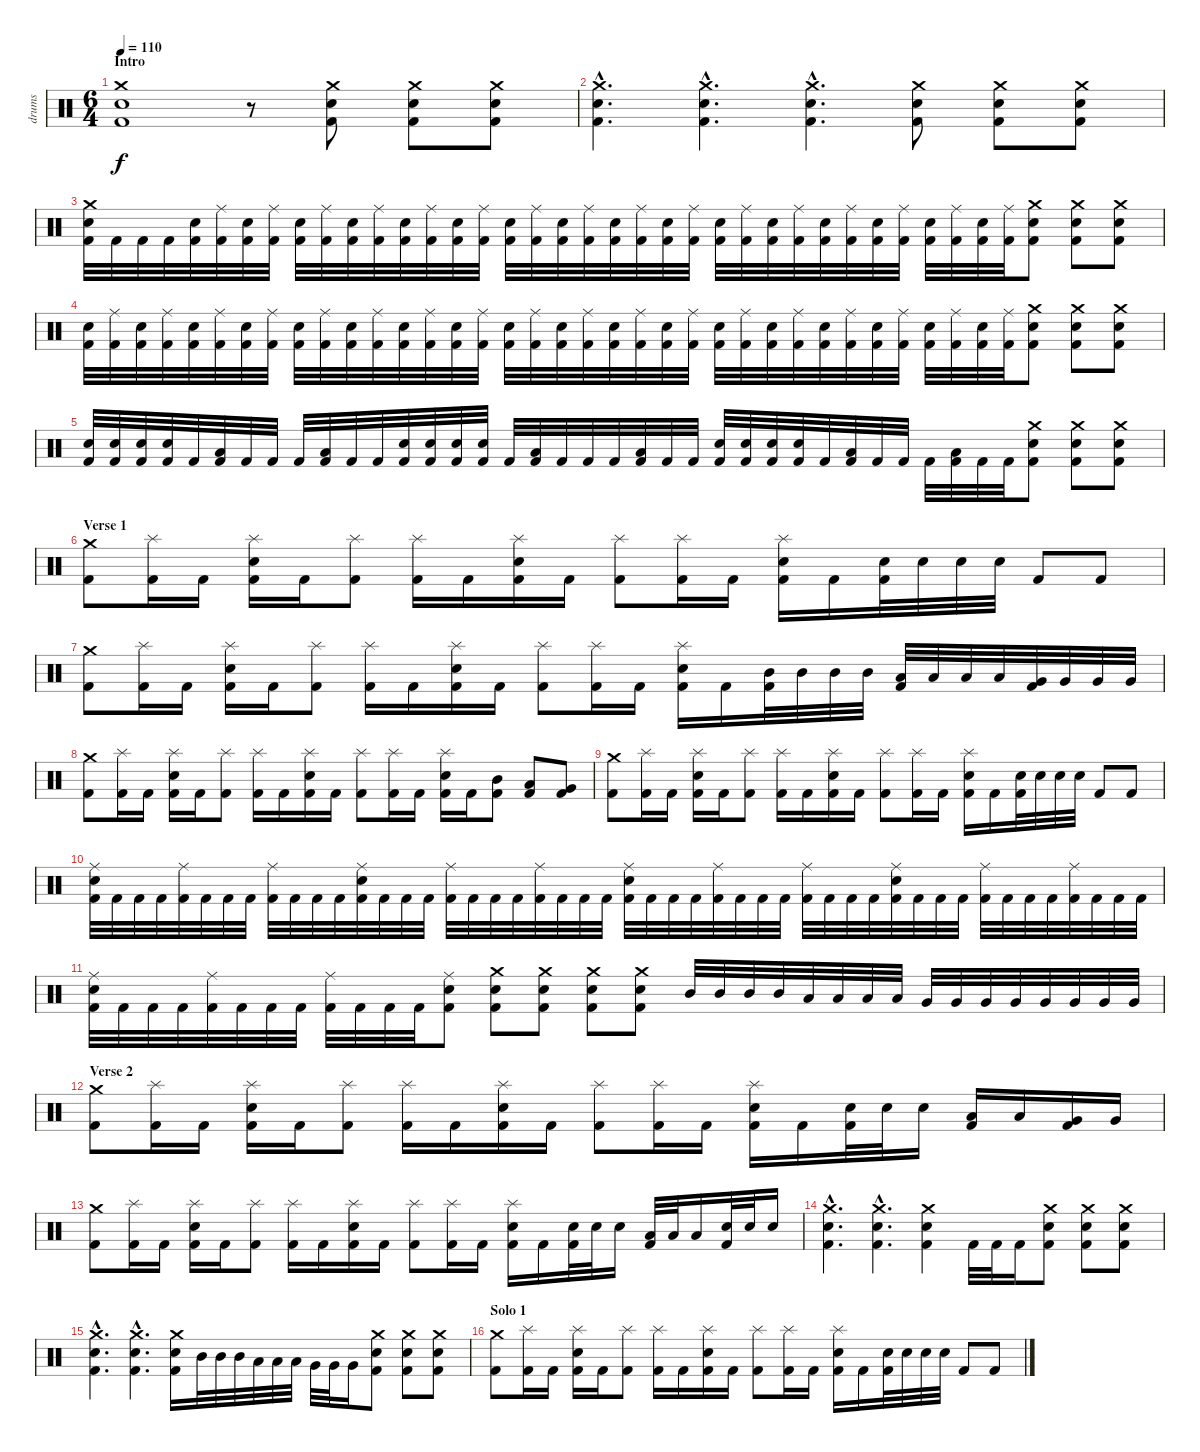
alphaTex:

\track ("drums" "drums") {instrument percussion}
\staff {score}
\articulation defaults
\ts (6 4)
\section ("" "Intro")
\tempo 110
\clef neutral
\ks c
("Crash medium (hit)" "Electric Snare (hit)" "Kick (hit) 2").1{dy f} r.8 ("Crash medium (hit)" "Electric Snare (hit)" "Kick (hit) 2").8 ("Crash medium (hit)" "Electric Snare (hit)" "Kick (hit) 2").8 ("Crash medium (hit)" "Electric Snare (hit)" "Kick (hit) 2").8 |
("Crash medium (hit)"{hac} "Electric Snare (hit)"{hac} "Kick (hit) 2"{hac}).4{d} ("Crash medium (hit)"{hac} "Electric Snare (hit)"{hac} "Kick (hit) 2"{hac}).4{d} ("Crash medium (hit)"{hac} "Electric Snare (hit)"{hac} "Kick (hit) 2"{hac}).4{d} ("Crash medium (hit)" "Electric Snare (hit)" "Kick (hit) 2").8 ("Crash medium (hit)" "Electric Snare (hit)" "Kick (hit) 2").8 ("Crash medium (hit)" "Electric Snare (hit)" "Kick (hit) 2").8 |
("Crash medium (hit)" "Electric Snare (hit)" "Kick (hit) 2").32 "Kick (hit) 2".32 "Kick (hit) 2".32 "Kick (hit) 2".32 ("Electric Snare (hit)" "Kick (hit) 2").32 ("Ride (middle)" "Kick (hit) 2").32 ("Electric Snare (hit)" "Kick (hit) 2").32 ("Ride (middle)" "Kick (hit) 2").32 ("Electric Snare (hit)" "Kick (hit) 2").32 ("Ride (middle)" "Kick (hit) 2").32 ("Electric Snare (hit)" "Kick (hit) 2").32 ("Ride (middle)" "Kick (hit) 2").32 ("Electric Snare (hit)" "Kick (hit) 2").32 ("Ride (middle)" "Kick (hit) 2").32 ("Electric Snare (hit)" "Kick (hit) 2").32 ("Ride (middle)" "Kick (hit) 2").32 ("Electric Snare (hit)" "Kick (hit) 2").32 ("Ride (middle)" "Kick (hit) 2").32 ("Electric Snare (hit)" "Kick (hit) 2").32 ("Ride (middle)" "Kick (hit) 2").32 ("Electric Snare (hit)" "Kick (hit) 2").32 ("Ride (middle)" "Kick (hit) 2").32 ("Electric Snare (hit)" "Kick (hit) 2").32 ("Ride (middle)" "Kick (hit) 2").32 ("Electric Snare (hit)" "Kick (hit) 2").32 ("Ride (middle)" "Kick (hit) 2").32 ("Electric Snare (hit)" "Kick (hit) 2").32 ("Ride (middle)" "Kick (hit) 2").32 ("Electric Snare (hit)" "Kick (hit) 2").32 ("Ride (middle)" "Kick (hit) 2").32 ("Electric Snare (hit)" "Kick (hit) 2").32 ("Ride (middle)" "Kick (hit) 2").32 ("Electric Snare (hit)" "Kick (hit) 2").32 ("Ride (middle)" "Kick (hit) 2").32 ("Electric Snare (hit)" "Kick (hit) 2").32 ("Ride (middle)" "Kick (hit) 2").32 ("Crash medium (hit)" "Electric Snare (hit)" "Kick (hit) 2").8 ("Crash medium (hit)" "Electric Snare (hit)" "Kick (hit) 2").8 ("Crash medium (hit)" "Electric Snare (hit)" "Kick (hit) 2").8 |
("Electric Snare (hit)" "Kick (hit) 2").32 ("Ride (middle)" "Kick (hit) 2").32 ("Electric Snare (hit)" "Kick (hit) 2").32 ("Ride (middle)" "Kick (hit) 2").32 ("Electric Snare (hit)" "Kick (hit) 2").32 ("Ride (middle)" "Kick (hit) 2").32 ("Electric Snare (hit)" "Kick (hit) 2").32 ("Ride (middle)" "Kick (hit) 2").32 ("Electric Snare (hit)" "Kick (hit) 2").32 ("Ride (middle)" "Kick (hit) 2").32 ("Electric Snare (hit)" "Kick (hit) 2").32 ("Ride (middle)" "Kick (hit) 2").32 ("Electric Snare (hit)" "Kick (hit) 2").32 ("Ride (middle)" "Kick (hit) 2").32 ("Electric Snare (hit)" "Kick (hit) 2").32 ("Ride (middle)" "Kick (hit) 2").32 ("Electric Snare (hit)" "Kick (hit) 2").32 ("Ride (middle)" "Kick (hit) 2").32 ("Electric Snare (hit)" "Kick (hit) 2").32 ("Ride (middle)" "Kick (hit) 2").32 ("Electric Snare (hit)" "Kick (hit) 2").32 ("Ride (middle)" "Kick (hit) 2").32 ("Electric Snare (hit)" "Kick (hit) 2").32 ("Ride (middle)" "Kick (hit) 2").32 ("Electric Snare (hit)" "Kick (hit) 2").32 ("Ride (middle)" "Kick (hit) 2").32 ("Electric Snare (hit)" "Kick (hit) 2").32 ("Ride (middle)" "Kick (hit) 2").32 ("Electric Snare (hit)" "Kick (hit) 2").32 ("Ride (middle)" "Kick (hit) 2").32 ("Electric Snare (hit)" "Kick (hit) 2").32 ("Ride (middle)" "Kick (hit) 2").32 ("Electric Snare (hit)" "Kick (hit) 2").32 ("Ride (middle)" "Kick (hit) 2").32 ("Electric Snare (hit)" "Kick (hit) 2").32 ("Ride (middle)" "Kick (hit) 2").32 ("Crash medium (hit)" "Electric Snare (hit)" "Kick (hit) 2").8 ("Crash medium (hit)" "Electric Snare (hit)" "Kick (hit) 2").8 ("Crash medium (hit)" "Electric Snare (hit)" "Kick (hit) 2").8 |
("Electric Snare (hit)" "Kick (hit) 2").32 ("Electric Snare (hit)" "Kick (hit) 2").32 ("Electric Snare (hit)" "Kick (hit) 2").32 ("Electric Snare (hit)" "Kick (hit) 2").32 "Kick (hit) 2".32 ("Low Tom (hit)" "Kick (hit) 2").32 "Kick (hit) 2".32 "Kick (hit) 2".32 "Kick (hit) 2".32 ("Low Tom (hit)" "Kick (hit) 2").32 "Kick (hit) 2".32 "Kick (hit) 2".32 ("Electric Snare (hit)" "Kick (hit) 2").32 ("Electric Snare (hit)" "Kick (hit) 2").32 ("Electric Snare (hit)" "Kick (hit) 2").32 ("Electric Snare (hit)" "Kick (hit) 2").32 "Kick (hit) 2".32 ("Low Tom (hit)" "Kick (hit) 2").32 "Kick (hit) 2".32 "Kick (hit) 2".32 "Kick (hit) 2".32 ("Low Tom (hit)" "Kick (hit) 2").32 "Kick (hit) 2".32 "Kick (hit) 2".32 ("Electric Snare (hit)" "Kick (hit) 2").32 ("Electric Snare (hit)" "Kick (hit) 2").32 ("Electric Snare (hit)" "Kick (hit) 2").32 ("Electric Snare (hit)" "Kick (hit) 2").32 "Kick (hit) 2".32 ("Low Tom (hit)" "Kick (hit) 2").32 "Kick (hit) 2".32 "Kick (hit) 2".32 "Kick (hit) 2".32 ("Low Tom (hit)" "Kick (hit) 2").32 "Kick (hit) 2".32 "Kick (hit) 2".32 ("Crash medium (hit)" "Electric Snare (hit)" "Kick (hit) 2").8 ("Crash medium (hit)" "Electric Snare (hit)" "Kick (hit) 2").8 ("Crash medium (hit)" "Electric Snare (hit)" "Kick (hit) 2").8 |
\section ("" "Verse 1")
("Crash medium (hit)" "Kick (hit) 2").8 ("Splash (hit)" "Kick (hit) 2").16 "Kick (hit) 2".16 ("Splash (hit)" "Electric Snare (hit)" "Kick (hit) 2").16 "Kick (hit) 2".16 ("Splash (hit)" "Kick (hit) 2").8 ("Splash (hit)" "Kick (hit) 2").16 "Kick (hit) 2".16 ("Splash (hit)" "Electric Snare (hit)" "Kick (hit) 2").16 "Kick (hit) 2".16 ("Splash (hit)" "Kick (hit) 2").8 ("Splash (hit)" "Kick (hit) 2").16 "Kick (hit) 2".16 ("Splash (hit)" "Electric Snare (hit)" "Kick (hit) 2").16 "Kick (hit) 2".16 ("Electric Snare (hit)" "Kick (hit) 2").32 "Electric Snare (hit)".32 "Electric Snare (hit)".32 "Electric Snare (hit)".32 "Kick (hit) 2".8 "Kick (hit) 2".8 |
("Crash medium (hit)" "Kick (hit) 2").8 ("Splash (hit)" "Kick (hit) 2").16 "Kick (hit) 2".16 ("Splash (hit)" "Electric Snare (hit)" "Kick (hit) 2").16 "Kick (hit) 2".16 ("Splash (hit)" "Kick (hit) 2").8 ("Splash (hit)" "Kick (hit) 2").16 "Kick (hit) 2".16 ("Splash (hit)" "Electric Snare (hit)" "Kick (hit) 2").16 "Kick (hit) 2".16 ("Splash (hit)" "Kick (hit) 2").8 ("Splash (hit)" "Kick (hit) 2").16 "Kick (hit) 2".16 ("Splash (hit)" "Electric Snare (hit)" "Kick (hit) 2").16 "Kick (hit) 2".16 ("Mid Tom (hit)" "Kick (hit) 2").32 "Mid Tom (hit)".32 "Mid Tom (hit)".32 "Mid Tom (hit)".32 ("Low Tom (hit)" "Kick (hit) 2").32 "Low Tom (hit)".32 "Low Tom (hit)".32 "Low Tom (hit)".32 ("Very Low Tom (hit)" "Kick (hit) 2").32 "Very Low Tom (hit)".32 "Very Low Tom (hit)".32 "Very Low Tom (hit)".32 |
("Crash medium (hit)" "Kick (hit) 2").8 ("Splash (hit)" "Kick (hit) 2").16 "Kick (hit) 2".16 ("Splash (hit)" "Electric Snare (hit)" "Kick (hit) 2").16 "Kick (hit) 2".16 ("Splash (hit)" "Kick (hit) 2").8 ("Splash (hit)" "Kick (hit) 2").16 "Kick (hit) 2".16 ("Splash (hit)" "Electric Snare (hit)" "Kick (hit) 2").16 "Kick (hit) 2".16 ("Splash (hit)" "Kick (hit) 2").8 ("Splash (hit)" "Kick (hit) 2").16 "Kick (hit) 2".16 ("Splash (hit)" "Electric Snare (hit)" "Kick (hit) 2").16 "Kick (hit) 2".16 ("Mid Tom (hit)" "Kick (hit) 2").8 ("Low Tom (hit)" "Kick (hit) 2").8 ("Very Low Tom (hit)" "Kick (hit) 2").8 |
("Crash medium (hit)" "Kick (hit) 2").8 ("Splash (hit)" "Kick (hit) 2").16 "Kick (hit) 2".16 ("Splash (hit)" "Electric Snare (hit)" "Kick (hit) 2").16 "Kick (hit) 2".16 ("Splash (hit)" "Kick (hit) 2").8 ("Splash (hit)" "Kick (hit) 2").16 "Kick (hit) 2".16 ("Splash (hit)" "Electric Snare (hit)" "Kick (hit) 2").16 "Kick (hit) 2".16 ("Splash (hit)" "Kick (hit) 2").8 ("Splash (hit)" "Kick (hit) 2").16 "Kick (hit) 2".16 ("Splash (hit)" "Electric Snare (hit)" "Kick (hit) 2").16 "Kick (hit) 2".16 ("Electric Snare (hit)" "Kick (hit) 2").32 "Electric Snare (hit)".32 "Electric Snare (hit)".32 "Electric Snare (hit)".32 "Kick (hit) 2".8 "Kick (hit) 2".8 |
("Ride (middle)" "Electric Snare (hit)" "Kick (hit) 2").32 "Kick (hit) 2".32 "Kick (hit) 2".32 "Kick (hit) 2".32 ("Ride (middle)" "Kick (hit) 2").32 "Kick (hit) 2".32 "Kick (hit) 2".32 "Kick (hit) 2".32 ("Ride (middle)" "Kick (hit) 2").32 "Kick (hit) 2".32 "Kick (hit) 2".32 "Kick (hit) 2".32 ("Ride (middle)" "Electric Snare (hit)" "Kick (hit) 2").32 "Kick (hit) 2".32 "Kick (hit) 2".32 "Kick (hit) 2".32 ("Ride (middle)" "Kick (hit) 2").32 "Kick (hit) 2".32 "Kick (hit) 2".32 "Kick (hit) 2".32 ("Ride (middle)" "Kick (hit) 2").32 "Kick (hit) 2".32 "Kick (hit) 2".32 "Kick (hit) 2".32 ("Ride (middle)" "Electric Snare (hit)" "Kick (hit) 2").32 "Kick (hit) 2".32 "Kick (hit) 2".32 "Kick (hit) 2".32 ("Ride (middle)" "Kick (hit) 2").32 "Kick (hit) 2".32 "Kick (hit) 2".32 "Kick (hit) 2".32 ("Ride (middle)" "Kick (hit) 2").32 "Kick (hit) 2".32 "Kick (hit) 2".32 "Kick (hit) 2".32 ("Ride (middle)" "Electric Snare (hit)" "Kick (hit) 2").32 "Kick (hit) 2".32 "Kick (hit) 2".32 "Kick (hit) 2".32 ("Ride (middle)" "Kick (hit) 2").32 "Kick (hit) 2".32 "Kick (hit) 2".32 "Kick (hit) 2".32 ("Ride (middle)" "Kick (hit) 2").32 "Kick (hit) 2".32 "Kick (hit) 2".32 "Kick (hit) 2".32 |
("Ride (middle)" "Electric Snare (hit)" "Kick (hit) 2").32 "Kick (hit) 2".32 "Kick (hit) 2".32 "Kick (hit) 2".32 ("Ride (middle)" "Kick (hit) 2").32 "Kick (hit) 2".32 "Kick (hit) 2".32 "Kick (hit) 2".32 ("Ride (middle)" "Kick (hit) 2").32 "Kick (hit) 2".32 "Kick (hit) 2".32 "Kick (hit) 2".32 ("Ride (middle)" "Electric Snare (hit)" "Kick (hit) 2").8 ("Crash medium (hit)" "Electric Snare (hit)" "Kick (hit) 2").8 ("Crash medium (hit)" "Electric Snare (hit)" "Kick (hit) 2").8 ("Crash medium (hit)" "Electric Snare (hit)" "Kick (hit) 2").8 ("Crash medium (hit)" "Electric Snare (hit)" "Kick (hit) 2").8 "Mid Tom (hit)".32 "Mid Tom (hit)".32 "Mid Tom (hit)".32 "Mid Tom (hit)".32 "Low Tom (hit)".32 "Low Tom (hit)".32 "Low Tom (hit)".32 "Low Tom (hit)".32 "Very Low Tom (hit)".32 "Very Low Tom (hit)".32 "Very Low Tom (hit)".32 "Very Low Tom (hit)".32 "Very Low Tom (hit)".32 "Very Low Tom (hit)".32 "Very Low Tom (hit)".32 "Very Low Tom (hit)".32 |
\section ("" "Verse 2")
("Crash medium (hit)" "Kick (hit) 2").8 ("Splash (hit)" "Kick (hit) 2").16 "Kick (hit) 2".16 ("Splash (hit)" "Electric Snare (hit)" "Kick (hit) 2").16 "Kick (hit) 2".16 ("Splash (hit)" "Kick (hit) 2").8 ("Splash (hit)" "Kick (hit) 2").16 "Kick (hit) 2".16 ("Splash (hit)" "Electric Snare (hit)" "Kick (hit) 2").16 "Kick (hit) 2".16 ("Splash (hit)" "Kick (hit) 2").8 ("Splash (hit)" "Kick (hit) 2").16 "Kick (hit) 2".16 ("Splash (hit)" "Electric Snare (hit)" "Kick (hit) 2").16 "Kick (hit) 2".16 ("Electric Snare (hit)" "Kick (hit) 2").32 "Electric Snare (hit)".32 "Electric Snare (hit)".16 ("Low Tom (hit)" "Kick (hit) 2").16 "Low Tom (hit)".16 ("Very Low Tom (hit)" "Kick (hit) 2").16 "Very Low Tom (hit)".16 |
("Crash medium (hit)" "Kick (hit) 2").8 ("Splash (hit)" "Kick (hit) 2").16 "Kick (hit) 2".16 ("Splash (hit)" "Electric Snare (hit)" "Kick (hit) 2").16 "Kick (hit) 2".16 ("Splash (hit)" "Kick (hit) 2").8 ("Splash (hit)" "Kick (hit) 2").16 "Kick (hit) 2".16 ("Splash (hit)" "Electric Snare (hit)" "Kick (hit) 2").16 "Kick (hit) 2".16 ("Splash (hit)" "Kick (hit) 2").8 ("Splash (hit)" "Kick (hit) 2").16 "Kick (hit) 2".16 ("Splash (hit)" "Electric Snare (hit)" "Kick (hit) 2").16 "Kick (hit) 2".16 ("Electric Snare (hit)" "Kick (hit) 2").32 "Electric Snare (hit)".32 "Electric Snare (hit)".16 ("Low Tom (hit)" "Kick (hit) 2").32 "Low Tom (hit)".32 "Low Tom (hit)".16 ("Electric Snare (hit)" "Kick (hit) 2").32 "Electric Snare (hit)".32 "Electric Snare (hit)".16 |
("Crash medium (hit)"{hac} "Electric Snare (hit)"{hac} "Kick (hit) 2"{hac}).4{d} ("Crash medium (hit)"{hac} "Electric Snare (hit)"{hac} "Kick (hit) 2"{hac}).4{d} ("Crash medium (hit)" "Electric Snare (hit)" "Kick (hit) 2").4 "Kick (hit) 2".32 "Kick (hit) 2".32 "Kick (hit) 2".16 ("Crash medium (hit)" "Electric Snare (hit)" "Kick (hit) 2").8 ("Crash medium (hit)" "Electric Snare (hit)" "Kick (hit) 2").8 ("Crash medium (hit)" "Electric Snare (hit)" "Kick (hit) 2").8 |
("Crash medium (hit)"{hac} "Electric Snare (hit)"{hac} "Kick (hit) 2"{hac}).4{d} ("Crash medium (hit)"{hac} "Electric Snare (hit)"{hac} "Kick (hit) 2"{hac}).4{d} ("Crash medium (hit)" "Electric Snare (hit)" "Kick (hit) 2").16 "Mid Tom (hit)".32 "Mid Tom (hit)".32 "Mid Tom (hit)".32 "Low Tom (hit)".32 "Low Tom (hit)".32 "Low Tom (hit)".32 "Very Low Tom (hit)".32 "Very Low Tom (hit)".32 "Very Low Tom (hit)".16 ("Crash medium (hit)" "Electric Snare (hit)" "Kick (hit) 2").8 ("Crash medium (hit)" "Electric Snare (hit)" "Kick (hit) 2").8 ("Crash medium (hit)" "Electric Snare (hit)" "Kick (hit) 2").8 |
\section ("" "Solo 1")
("Crash medium (hit)" "Kick (hit) 2").8 ("Splash (hit)" "Kick (hit) 2").16 "Kick (hit) 2".16 ("Splash (hit)" "Electric Snare (hit)" "Kick (hit) 2").16 "Kick (hit) 2".16 ("Splash (hit)" "Kick (hit) 2").8 ("Splash (hit)" "Kick (hit) 2").16 "Kick (hit) 2".16 ("Splash (hit)" "Electric Snare (hit)" "Kick (hit) 2").16 "Kick (hit) 2".16 ("Splash (hit)" "Kick (hit) 2").8 ("Splash (hit)" "Kick (hit) 2").16 "Kick (hit) 2".16 ("Splash (hit)" "Electric Snare (hit)" "Kick (hit) 2").16 "Kick (hit) 2".16 ("Electric Snare (hit)" "Kick (hit) 2").32 "Electric Snare (hit)".32 "Electric Snare (hit)".32 "Electric Snare (hit)".32 "Kick (hit) 2".8 "Kick (hit) 2".8
